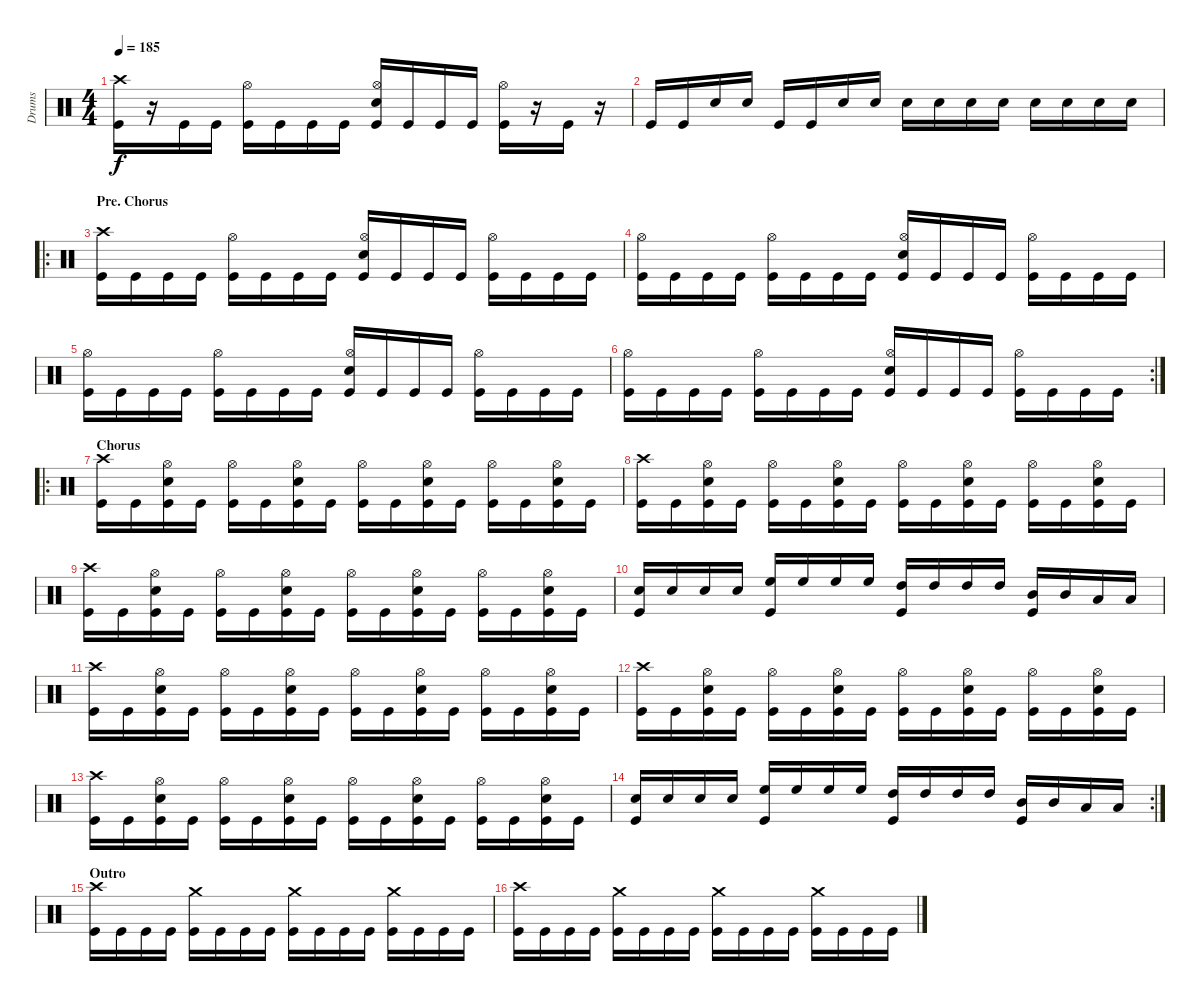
\track ("Drums" "Drums") {instrument percussion}
\staff {score}
\articulation defaults
\ts (4 4)
\tempo 185
\clef neutral
\ks c
("Crash high (hit)" "Kick (hit)").16{dy f} r.16 "Kick (hit)".16 "Kick (hit)".16 ("Hi-Hat (open)" "Kick (hit)").16 "Kick (hit)".16 "Kick (hit)".16 "Kick (hit)".16 ("Hi-Hat (open)" "Electric Snare (hit)" "Kick (hit)").16 "Kick (hit)".16 "Kick (hit)".16 "Kick (hit)".16 ("Hi-Hat (open)" "Kick (hit)").16 r.16 "Kick (hit)".16 r.16 |
"Kick (hit)".16 "Kick (hit)".16 "Electric Snare (hit)".16 "Electric Snare (hit)".16 "Kick (hit)".16 "Kick (hit)".16 "Electric Snare (hit)".16 "Electric Snare (hit)".16 "Electric Snare (hit)".16 "Electric Snare (hit)".16 "Electric Snare (hit)".16 "Electric Snare (hit)".16 "Electric Snare (hit)".16 "Electric Snare (hit)".16 "Electric Snare (hit)".16 "Electric Snare (hit)".16 |
\ro
\section ("" "Pre. Chorus")
("Crash high (hit)" "Kick (hit)").16 "Kick (hit)".16 "Kick (hit)".16 "Kick (hit)".16 ("Hi-Hat (open)" "Kick (hit)").16 "Kick (hit)".16 "Kick (hit)".16 "Kick (hit)".16 ("Hi-Hat (open)" "Electric Snare (hit)" "Kick (hit)").16 "Kick (hit)".16 "Kick (hit)".16 "Kick (hit)".16 ("Hi-Hat (open)" "Kick (hit)").16 "Kick (hit)".16 "Kick (hit)".16 "Kick (hit)".16 |
("Hi-Hat (open)" "Kick (hit)").16 "Kick (hit)".16 "Kick (hit)".16 "Kick (hit)".16 ("Hi-Hat (open)" "Kick (hit)").16 "Kick (hit)".16 "Kick (hit)".16 "Kick (hit)".16 ("Hi-Hat (open)" "Electric Snare (hit)" "Kick (hit)").16 "Kick (hit)".16 "Kick (hit)".16 "Kick (hit)".16 ("Hi-Hat (open)" "Kick (hit)").16 "Kick (hit)".16 "Kick (hit)".16 "Kick (hit)".16 |
("Hi-Hat (open)" "Kick (hit)").16 "Kick (hit)".16 "Kick (hit)".16 "Kick (hit)".16 ("Hi-Hat (open)" "Kick (hit)").16 "Kick (hit)".16 "Kick (hit)".16 "Kick (hit)".16 ("Hi-Hat (open)" "Electric Snare (hit)" "Kick (hit)").16 "Kick (hit)".16 "Kick (hit)".16 "Kick (hit)".16 ("Hi-Hat (open)" "Kick (hit)").16 "Kick (hit)".16 "Kick (hit)".16 "Kick (hit)".16 |
\rc 2
("Hi-Hat (open)" "Kick (hit)").16 "Kick (hit)".16 "Kick (hit)".16 "Kick (hit)".16 ("Hi-Hat (open)" "Kick (hit)").16 "Kick (hit)".16 "Kick (hit)".16 "Kick (hit)".16 ("Hi-Hat (open)" "Electric Snare (hit)" "Kick (hit)").16 "Kick (hit)".16 "Kick (hit)".16 "Kick (hit)".16 ("Hi-Hat (open)" "Kick (hit)").16 "Kick (hit)".16 "Kick (hit)".16 "Kick (hit)".16 |
\ro
\section ("" "Chorus")
("Crash high (hit)" "Kick (hit)").16 "Kick (hit)".16 ("Hi-Hat (open)" "Electric Snare (hit)" "Kick (hit)").16 "Kick (hit)".16 ("Hi-Hat (open)" "Kick (hit)").16 "Kick (hit)".16 ("Hi-Hat (open)" "Electric Snare (hit)" "Kick (hit)").16 "Kick (hit)".16 ("Hi-Hat (open)" "Kick (hit)").16 "Kick (hit)".16 ("Hi-Hat (open)" "Electric Snare (hit)" "Kick (hit)").16 "Kick (hit)".16 ("Hi-Hat (open)" "Kick (hit)").16 "Kick (hit)".16 ("Hi-Hat (open)" "Electric Snare (hit)" "Kick (hit)").16 "Kick (hit)".16 |
("Crash high (hit)" "Kick (hit)").16 "Kick (hit)".16 ("Hi-Hat (open)" "Electric Snare (hit)" "Kick (hit)").16 "Kick (hit)".16 ("Hi-Hat (open)" "Kick (hit)").16 "Kick (hit)".16 ("Hi-Hat (open)" "Electric Snare (hit)" "Kick (hit)").16 "Kick (hit)".16 ("Hi-Hat (open)" "Kick (hit)").16 "Kick (hit)".16 ("Hi-Hat (open)" "Electric Snare (hit)" "Kick (hit)").16 "Kick (hit)".16 ("Hi-Hat (open)" "Kick (hit)").16 "Kick (hit)".16 ("Hi-Hat (open)" "Electric Snare (hit)" "Kick (hit)").16 "Kick (hit)".16 |
("Crash high (hit)" "Kick (hit)").16 "Kick (hit)".16 ("Hi-Hat (open)" "Electric Snare (hit)" "Kick (hit)").16 "Kick (hit)".16 ("Hi-Hat (open)" "Kick (hit)").16 "Kick (hit)".16 ("Hi-Hat (open)" "Electric Snare (hit)" "Kick (hit)").16 "Kick (hit)".16 ("Hi-Hat (open)" "Kick (hit)").16 "Kick (hit)".16 ("Hi-Hat (open)" "Electric Snare (hit)" "Kick (hit)").16 "Kick (hit)".16 ("Hi-Hat (open)" "Kick (hit)").16 "Kick (hit)".16 ("Hi-Hat (open)" "Electric Snare (hit)" "Kick (hit)").16 "Kick (hit)".16 |
("Electric Snare (hit)" "Kick (hit)").16 "Electric Snare (hit)".16 "Electric Snare (hit)".16 "Electric Snare (hit)".16 ("High Floor Tom (hit)" "Kick (hit)").16 "High Floor Tom (hit)".16 "High Floor Tom (hit)".16 "High Floor Tom (hit)".16 ("High Tom (hit)" "Kick (hit)").16 "High Tom (hit)".16 "High Tom (hit)".16 "High Tom (hit)".16 ("Mid Tom (hit)" "Kick (hit)").16 "Mid Tom (hit)".16 "Low Tom (hit)".16 "Low Tom (hit)".16 |
("Crash high (hit)" "Kick (hit)").16 "Kick (hit)".16 ("Hi-Hat (open)" "Electric Snare (hit)" "Kick (hit)").16 "Kick (hit)".16 ("Hi-Hat (open)" "Kick (hit)").16 "Kick (hit)".16 ("Hi-Hat (open)" "Electric Snare (hit)" "Kick (hit)").16 "Kick (hit)".16 ("Hi-Hat (open)" "Kick (hit)").16 "Kick (hit)".16 ("Hi-Hat (open)" "Electric Snare (hit)" "Kick (hit)").16 "Kick (hit)".16 ("Hi-Hat (open)" "Kick (hit)").16 "Kick (hit)".16 ("Hi-Hat (open)" "Electric Snare (hit)" "Kick (hit)").16 "Kick (hit)".16 |
("Crash high (hit)" "Kick (hit)").16 "Kick (hit)".16 ("Hi-Hat (open)" "Electric Snare (hit)" "Kick (hit)").16 "Kick (hit)".16 ("Hi-Hat (open)" "Kick (hit)").16 "Kick (hit)".16 ("Hi-Hat (open)" "Electric Snare (hit)" "Kick (hit)").16 "Kick (hit)".16 ("Hi-Hat (open)" "Kick (hit)").16 "Kick (hit)".16 ("Hi-Hat (open)" "Electric Snare (hit)" "Kick (hit)").16 "Kick (hit)".16 ("Hi-Hat (open)" "Kick (hit)").16 "Kick (hit)".16 ("Hi-Hat (open)" "Electric Snare (hit)" "Kick (hit)").16 "Kick (hit)".16 |
("Crash high (hit)" "Kick (hit)").16 "Kick (hit)".16 ("Hi-Hat (open)" "Electric Snare (hit)" "Kick (hit)").16 "Kick (hit)".16 ("Hi-Hat (open)" "Kick (hit)").16 "Kick (hit)".16 ("Hi-Hat (open)" "Electric Snare (hit)" "Kick (hit)").16 "Kick (hit)".16 ("Hi-Hat (open)" "Kick (hit)").16 "Kick (hit)".16 ("Hi-Hat (open)" "Electric Snare (hit)" "Kick (hit)").16 "Kick (hit)".16 ("Hi-Hat (open)" "Kick (hit)").16 "Kick (hit)".16 ("Hi-Hat (open)" "Electric Snare (hit)" "Kick (hit)").16 "Kick (hit)".16 |
\rc 2
("Electric Snare (hit)" "Kick (hit)").16 "Electric Snare (hit)".16 "Electric Snare (hit)".16 "Electric Snare (hit)".16 ("High Floor Tom (hit)" "Kick (hit)").16 "High Floor Tom (hit)".16 "High Floor Tom (hit)".16 "High Floor Tom (hit)".16 ("High Tom (hit)" "Kick (hit)").16 "High Tom (hit)".16 "High Tom (hit)".16 "High Tom (hit)".16 ("Mid Tom (hit)" "Kick (hit)").16 "Mid Tom (hit)".16 "Low Tom (hit)".16 "Low Tom (hit)".16 |
\section ("" "Outro")
("Crash high (hit)" "Kick (hit)").16 "Kick (hit)".16 "Kick (hit)".16 "Kick (hit)".16 ("Crash medium (hit)" "Kick (hit)").16 "Kick (hit)".16 "Kick (hit)".16 "Kick (hit)".16 ("Crash medium (hit)" "Kick (hit)").16 "Kick (hit)".16 "Kick (hit)".16 "Kick (hit)".16 ("Crash medium (hit)" "Kick (hit)").16 "Kick (hit)".16 "Kick (hit)".16 "Kick (hit)".16 |
("Crash high (hit)" "Kick (hit)").16 "Kick (hit)".16 "Kick (hit)".16 "Kick (hit)".16 ("Crash medium (hit)" "Kick (hit)").16 "Kick (hit)".16 "Kick (hit)".16 "Kick (hit)".16 ("Crash medium (hit)" "Kick (hit)").16 "Kick (hit)".16 "Kick (hit)".16 "Kick (hit)".16 ("Crash medium (hit)" "Kick (hit)").16 "Kick (hit)".16 "Kick (hit)".16 "Kick (hit)".16
